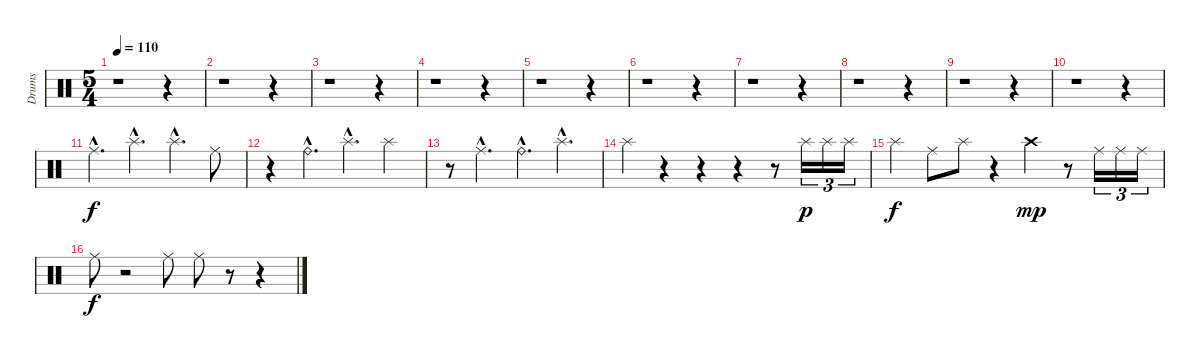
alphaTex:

\track ("Drums" "Drums") {instrument percussion}
\staff {score}
\articulation defaults
\ts (5 4)
\tempo 110
\clef neutral
\ks c
r.1{dy f} r.4 |
r.1 r.4 |
r.1 r.4 |
r.1 r.4 |
r.1 r.4 |
r.1 r.4 |
r.1 r.4 |
r.1 r.4 |
r.1 r.4 |
r.1 r.4 |
"Ride (middle)"{hac}.4{d} "Splash (hit)"{hac}.4{d} "Splash (hit)"{hac}.4{d} "Ride (middle)".8 |
r.4 "Ride (bell)"{hac}.4{d} "Splash (hit)"{hac}.4{d} "Splash (hit)".4 |
r.8 "Ride (middle)"{hac}.4{d} "Ride (bell)"{hac}.4{d} "Splash (hit)"{hac}.4{d} |
"Splash (hit)".4 r.4 r.4 r.4 r.8 "Splash (hit)".16{tu (3 2) dy p} "Splash (hit)".16{tu (3 2)} "Splash (hit)".16{tu (3 2)} |
"Splash (hit)".4{dy f} "Ride (middle)".8 "Splash (hit)".8 r.4 "Crash high (hit)".4{dy mp} r.8 "Ride (middle)".16{tu (3 2)} "Ride (middle)".16{tu (3 2)} "Ride (middle)".16{tu (3 2)} |
"Ride (middle)".8{dy f} r.2 "Ride (middle)".8 "Ride (middle)".8 r.8 r.4
